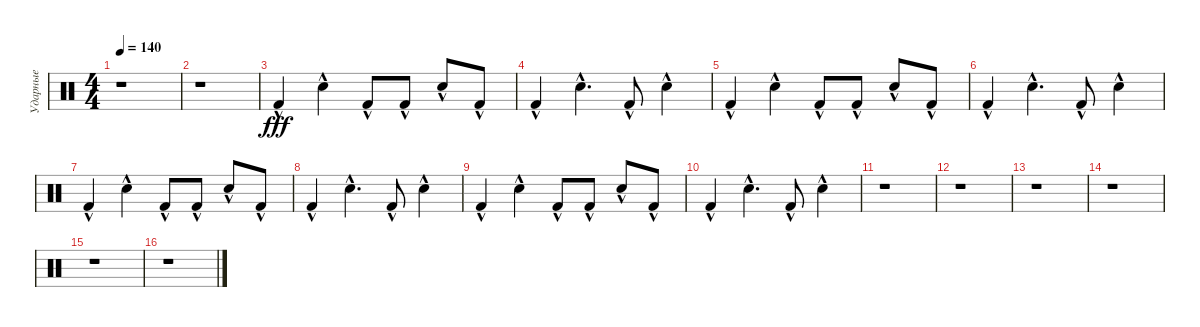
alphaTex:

\track ("Ударные" "Ударные") {instrument percussion}
\staff {score}
\articulation defaults
\ts (4 4)
\tempo 140
\clef neutral
\ks c
r.1{dy fff} |
r.1 |
"Kick (hit) 2"{hac}.4 "Snare (hit) 2"{hac}.4 "Kick (hit) 2"{hac}.8 "Kick (hit) 2"{hac}.8 "Snare (hit) 2"{hac}.8 "Kick (hit) 2"{hac}.8 |
"Kick (hit) 2"{hac}.4 "Snare (hit) 2"{hac}.4{d} "Kick (hit) 2"{hac}.8 "Snare (hit) 2"{hac}.4 |
"Kick (hit) 2"{hac}.4 "Snare (hit) 2"{hac}.4 "Kick (hit) 2"{hac}.8 "Kick (hit) 2"{hac}.8 "Snare (hit) 2"{hac}.8 "Kick (hit) 2"{hac}.8 |
"Kick (hit) 2"{hac}.4 "Snare (hit) 2"{hac}.4{d} "Kick (hit) 2"{hac}.8 "Snare (hit) 2"{hac}.4 |
"Kick (hit) 2"{hac}.4 "Snare (hit) 2"{hac}.4 "Kick (hit) 2"{hac}.8 "Kick (hit) 2"{hac}.8 "Snare (hit) 2"{hac}.8 "Kick (hit) 2"{hac}.8 |
"Kick (hit) 2"{hac}.4 "Snare (hit) 2"{hac}.4{d} "Kick (hit) 2"{hac}.8 "Snare (hit) 2"{hac}.4 |
"Kick (hit) 2"{hac}.4 "Snare (hit) 2"{hac}.4 "Kick (hit) 2"{hac}.8 "Kick (hit) 2"{hac}.8 "Snare (hit) 2"{hac}.8 "Kick (hit) 2"{hac}.8 |
"Kick (hit) 2"{hac}.4 "Snare (hit) 2"{hac}.4{d} "Kick (hit) 2"{hac}.8 "Snare (hit) 2"{hac}.4 |
r.1 |
r.1 |
r.1 |
r.1 |
r.1 |
r.1
